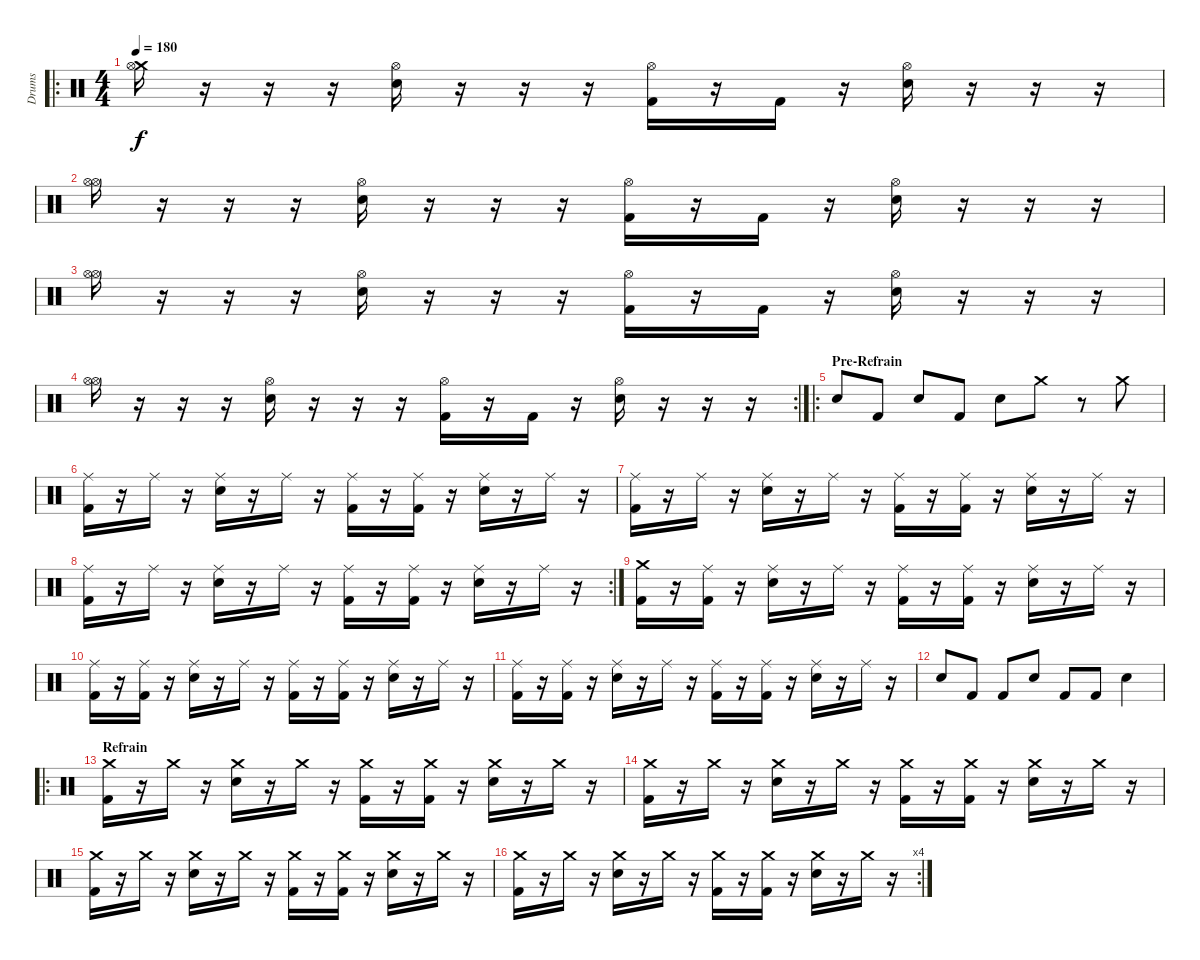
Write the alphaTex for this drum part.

\track ("Drums" "Drums") {instrument percussion}
\staff {score}
\articulation defaults
\ro
\ts (4 4)
\tempo 180
\clef neutral
\ks c
("Crash medium (hit)" "Hi-Hat (open)").16{dy f} r.16 r.16 r.16 ("Hi-Hat (open)" "Electric Snare (hit)").16 r.16 r.16 r.16 ("Hi-Hat (open)" "Kick (hit) 2").16 r.16 "Kick (hit) 2".16 r.16 ("Hi-Hat (open)" "Electric Snare (hit)").16 r.16 r.16 r.16 |
("Hi-Hat (open)" "Hi-Hat (open)").16 r.16 r.16 r.16 ("Hi-Hat (open)" "Electric Snare (hit)").16 r.16 r.16 r.16 ("Hi-Hat (open)" "Kick (hit) 2").16 r.16 "Kick (hit) 2".16 r.16 ("Hi-Hat (open)" "Electric Snare (hit)").16 r.16 r.16 r.16 |
("Hi-Hat (open)" "Hi-Hat (open)").16 r.16 r.16 r.16 ("Hi-Hat (open)" "Electric Snare (hit)").16 r.16 r.16 r.16 ("Hi-Hat (open)" "Kick (hit) 2").16 r.16 "Kick (hit) 2".16 r.16 ("Hi-Hat (open)" "Electric Snare (hit)").16 r.16 r.16 r.16 |
\rc 2
("Hi-Hat (open)" "Hi-Hat (open)").16 r.16 r.16 r.16 ("Hi-Hat (open)" "Electric Snare (hit)").16 r.16 r.16 r.16 ("Hi-Hat (open)" "Kick (hit) 2").16 r.16 "Kick (hit) 2".16 r.16 ("Hi-Hat (open)" "Electric Snare (hit)").16 r.16 r.16 r.16 |
\ro
\section ("" "Pre-Refrain")
"Electric Snare (hit)".8 "Kick (hit) 2".8 "Electric Snare (hit)".8 "Kick (hit) 2".8 "Electric Snare (hit)".8 "Crash medium (hit)".8 r.8 "Crash medium (hit)".8 |
("Ride (middle)" "Kick (hit) 2").16 r.16 "Ride (middle)".16 r.16 ("Ride (middle)" "Electric Snare (hit)").16 r.16 "Ride (middle)".16 r.16 ("Ride (middle)" "Kick (hit) 2").16 r.16 ("Ride (middle)" "Kick (hit) 2").16 r.16 ("Ride (middle)" "Electric Snare (hit)").16 r.16 "Ride (middle)".16 r.16 |
("Ride (middle)" "Kick (hit) 2").16 r.16 "Ride (middle)".16 r.16 ("Ride (middle)" "Electric Snare (hit)").16 r.16 "Ride (middle)".16 r.16 ("Ride (middle)" "Kick (hit) 2").16 r.16 ("Ride (middle)" "Kick (hit) 2").16 r.16 ("Ride (middle)" "Electric Snare (hit)").16 r.16 "Ride (middle)".16 r.16 |
\rc 2
("Ride (middle)" "Kick (hit) 2").16 r.16 "Ride (middle)".16 r.16 ("Ride (middle)" "Electric Snare (hit)").16 r.16 "Ride (middle)".16 r.16 ("Ride (middle)" "Kick (hit) 2").16 r.16 ("Ride (middle)" "Kick (hit) 2").16 r.16 ("Ride (middle)" "Electric Snare (hit)").16 r.16 "Ride (middle)".16 r.16 |
("Crash medium (hit)" "Kick (hit) 2").16 r.16 ("Ride (middle)" "Kick (hit) 2").16 r.16 ("Ride (middle)" "Electric Snare (hit)").16 r.16 "Ride (middle)".16 r.16 ("Ride (middle)" "Kick (hit) 2").16 r.16 ("Ride (middle)" "Kick (hit) 2").16 r.16 ("Ride (middle)" "Electric Snare (hit)").16 r.16 "Ride (middle)".16 r.16 |
("Ride (middle)" "Kick (hit) 2").16 r.16 ("Ride (middle)" "Kick (hit) 2").16 r.16 ("Ride (middle)" "Electric Snare (hit)").16 r.16 "Ride (middle)".16 r.16 ("Ride (middle)" "Kick (hit) 2").16 r.16 ("Ride (middle)" "Kick (hit) 2").16 r.16 ("Ride (middle)" "Electric Snare (hit)").16 r.16 "Ride (middle)".16 r.16 |
("Ride (middle)" "Kick (hit) 2").16 r.16 ("Ride (middle)" "Kick (hit) 2").16 r.16 ("Ride (middle)" "Electric Snare (hit)").16 r.16 "Ride (middle)".16 r.16 ("Ride (middle)" "Kick (hit) 2").16 r.16 ("Ride (middle)" "Kick (hit) 2").16 r.16 ("Ride (middle)" "Electric Snare (hit)").16 r.16 "Ride (middle)".16 r.16 |
"Electric Snare (hit)".8 "Kick (hit) 2".8 "Kick (hit) 2".8 "Electric Snare (hit)".8 "Kick (hit) 2".8 "Kick (hit) 2".8 "Electric Snare (hit)".4 |
\ro
\section ("" "Refrain")
("Crash medium (hit)" "Kick (hit) 2").16 r.16 "Crash medium (hit)".16 r.16 ("Crash medium (hit)" "Electric Snare (hit)").16 r.16 "Crash medium (hit)".16 r.16 ("Crash medium (hit)" "Kick (hit) 2").16 r.16 ("Crash medium (hit)" "Kick (hit) 2").16 r.16 ("Crash medium (hit)" "Electric Snare (hit)").16 r.16 "Crash medium (hit)".16 r.16 |
("Crash medium (hit)" "Kick (hit) 2").16 r.16 "Crash medium (hit)".16 r.16 ("Crash medium (hit)" "Electric Snare (hit)").16 r.16 "Crash medium (hit)".16 r.16 ("Crash medium (hit)" "Kick (hit) 2").16 r.16 ("Crash medium (hit)" "Kick (hit) 2").16 r.16 ("Crash medium (hit)" "Electric Snare (hit)").16 r.16 "Crash medium (hit)".16 r.16 |
("Crash medium (hit)" "Kick (hit) 2").16 r.16 "Crash medium (hit)".16 r.16 ("Crash medium (hit)" "Electric Snare (hit)").16 r.16 "Crash medium (hit)".16 r.16 ("Crash medium (hit)" "Kick (hit) 2").16 r.16 ("Crash medium (hit)" "Kick (hit) 2").16 r.16 ("Crash medium (hit)" "Electric Snare (hit)").16 r.16 "Crash medium (hit)".16 r.16 |
\rc 4
("Crash medium (hit)" "Kick (hit) 2").16 r.16 "Crash medium (hit)".16 r.16 ("Crash medium (hit)" "Electric Snare (hit)").16 r.16 "Crash medium (hit)".16 r.16 ("Crash medium (hit)" "Kick (hit) 2").16 r.16 ("Crash medium (hit)" "Kick (hit) 2").16 r.16 ("Crash medium (hit)" "Electric Snare (hit)").16 r.16 "Crash medium (hit)".16 r.16
